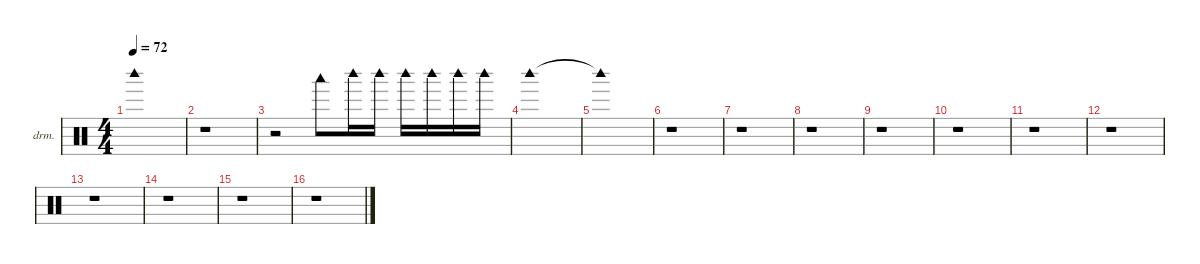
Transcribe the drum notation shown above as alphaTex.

\hideDynamics
\bracketExtendMode nobrackets
\firstSystemTrackNameOrientation horizontal
\otherSystemsTrackNameOrientation horizontal
\track ("Drumkit" "drm.") {instrument percussion}
\staff {score}
\articulation defaults
\ts (4 4)
\tempo 72
\clef neutral
\ks aminor "Woodblock high (hit)"{t}.1{dy mf}
|
r.1 |
r.2 "Woodblock low (hit)".8 "Woodblock high (hit)".16 "Woodblock high (hit)".16 "Woodblock high (hit)".16 "Woodblock high (hit)".16 "Woodblock high (hit)".16 "Woodblock high (hit)".16 |
"Woodblock high (hit)".1 |
"Woodblock high (hit)"{t}.1 |
r.1 |
r.1 |
r.1 |
r.1 |
r.1 |
r.1 |
r.1 |
r.1 |
r.1 |
r.1 |
r.1
